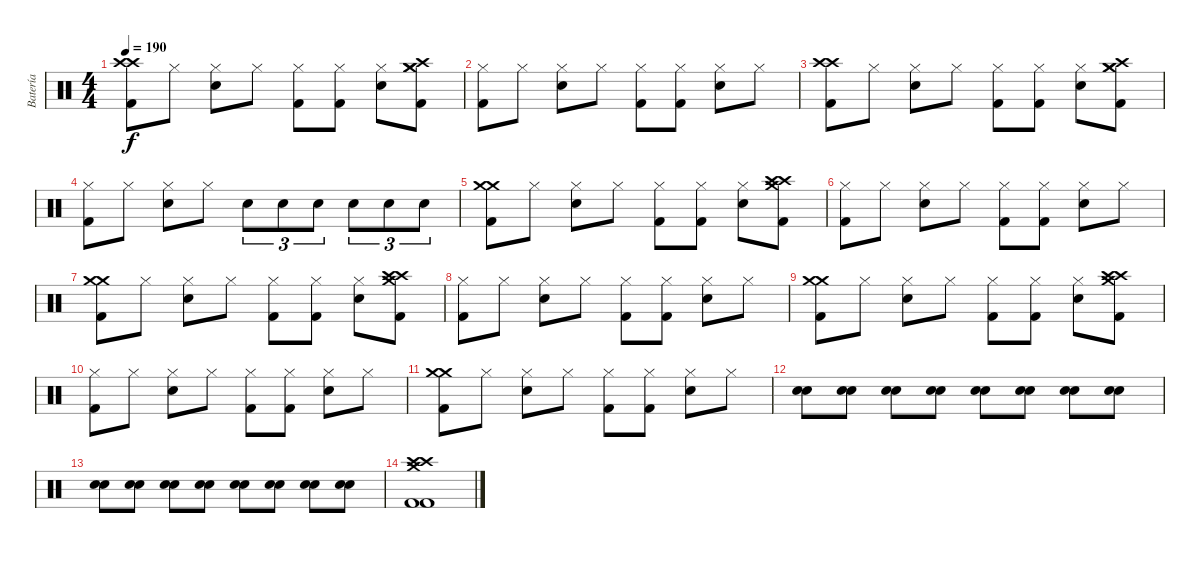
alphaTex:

\track ("Batería" "Batería") {instrument percussion}
\staff {score}
\articulation defaults
\ts (4 4)
\tempo 190
\clef neutral
\ks c
("Crash high (hit)" "Crash high (hit)" "Kick (hit) 2").8{dy f} "Hi-Hat (closed)".8 ("Hi-Hat (closed)" "Snare (hit) 2").8 "Hi-Hat (closed)".8 ("Hi-Hat (closed)" "Kick (hit) 2").8 ("Hi-Hat (closed)" "Kick (hit) 2").8 ("Hi-Hat (closed)" "Snare (hit) 2").8 ("Crash medium (hit)" "Crash medium (hit)" "Crash high (hit)" "Kick (hit) 2").8 |
("Hi-Hat (closed)" "Kick (hit) 2").8 "Hi-Hat (closed)".8 ("Hi-Hat (closed)" "Snare (hit) 2").8 "Hi-Hat (closed)".8 ("Hi-Hat (closed)" "Kick (hit) 2").8 ("Hi-Hat (closed)" "Kick (hit) 2").8 ("Hi-Hat (closed)" "Snare (hit) 2").8 "Hi-Hat (closed)".8 |
("Crash high (hit)" "Crash high (hit)" "Kick (hit) 2").8 "Hi-Hat (closed)".8 ("Hi-Hat (closed)" "Snare (hit) 2").8 "Hi-Hat (closed)".8 ("Hi-Hat (closed)" "Kick (hit) 2").8 ("Hi-Hat (closed)" "Kick (hit) 2").8 ("Hi-Hat (closed)" "Snare (hit) 2").8 ("Crash medium (hit)" "Crash medium (hit)" "Crash high (hit)" "Kick (hit) 2").8 |
("Hi-Hat (closed)" "Kick (hit) 2").8 "Hi-Hat (closed)".8 ("Hi-Hat (closed)" "Snare (hit) 2").8 "Hi-Hat (closed)".8 "Snare (hit) 2".8{tu (3 2)} "Snare (hit) 2".8{tu (3 2)} "Snare (hit) 2".8{tu (3 2)} "Snare (hit) 2".8{tu (3 2)} "Snare (hit) 2".8{tu (3 2)} "Snare (hit) 2".8{tu (3 2)} |
("Crash medium (hit)" "Crash medium (hit)" "Kick (hit) 2").8 "Hi-Hat (closed)".8 ("Hi-Hat (closed)" "Snare (hit) 2").8 "Hi-Hat (closed)".8 ("Hi-Hat (closed)" "Kick (hit) 2").8 ("Hi-Hat (closed)" "Kick (hit) 2").8 ("Hi-Hat (closed)" "Snare (hit) 2").8 ("Crash high (hit)" "Crash high (hit)" "Crash medium (hit)" "Kick (hit) 2").8 |
("Hi-Hat (closed)" "Kick (hit) 2").8 "Hi-Hat (closed)".8 ("Hi-Hat (closed)" "Snare (hit) 2").8 "Hi-Hat (closed)".8 ("Hi-Hat (closed)" "Kick (hit) 2").8 ("Hi-Hat (closed)" "Kick (hit) 2").8 ("Hi-Hat (closed)" "Snare (hit) 2").8 "Hi-Hat (closed)".8 |
("Crash medium (hit)" "Crash medium (hit)" "Kick (hit) 2").8 "Hi-Hat (closed)".8 ("Hi-Hat (closed)" "Snare (hit) 2").8 "Hi-Hat (closed)".8 ("Hi-Hat (closed)" "Kick (hit) 2").8 ("Hi-Hat (closed)" "Kick (hit) 2").8 ("Hi-Hat (closed)" "Snare (hit) 2").8 ("Crash high (hit)" "Crash medium (hit)" "Crash high (hit)" "Kick (hit) 2").8 |
("Hi-Hat (closed)" "Kick (hit) 2").8 "Hi-Hat (closed)".8 ("Hi-Hat (closed)" "Snare (hit) 2").8 "Hi-Hat (closed)".8 ("Hi-Hat (closed)" "Kick (hit) 2").8 ("Hi-Hat (closed)" "Kick (hit) 2").8 ("Hi-Hat (closed)" "Snare (hit) 2").8 "Hi-Hat (closed)".8 |
("Crash medium (hit)" "Crash medium (hit)" "Kick (hit) 2").8 "Hi-Hat (closed)".8 ("Hi-Hat (closed)" "Snare (hit) 2").8 "Hi-Hat (closed)".8 ("Hi-Hat (closed)" "Kick (hit) 2").8 ("Hi-Hat (closed)" "Kick (hit) 2").8 ("Hi-Hat (closed)" "Snare (hit) 2").8 ("Crash high (hit)" "Crash medium (hit)" "Crash high (hit)" "Kick (hit) 2").8 |
("Hi-Hat (closed)" "Kick (hit) 2").8 "Hi-Hat (closed)".8 ("Hi-Hat (closed)" "Snare (hit) 2").8 "Hi-Hat (closed)".8 ("Hi-Hat (closed)" "Kick (hit) 2").8 ("Hi-Hat (closed)" "Kick (hit) 2").8 ("Hi-Hat (closed)" "Snare (hit) 2").8 "Hi-Hat (closed)".8 |
("Crash medium (hit)" "Crash medium (hit)" "Kick (hit) 2").8 "Hi-Hat (closed)".8 ("Hi-Hat (closed)" "Snare (hit) 2").8 "Hi-Hat (closed)".8 ("Hi-Hat (closed)" "Kick (hit) 2").8 ("Hi-Hat (closed)" "Kick (hit) 2").8 ("Hi-Hat (closed)" "Snare (hit) 2").8 "Hi-Hat (closed)".8 |
("Snare (hit) 2" "Snare (hit) 2").8 ("Snare (hit) 2" "Snare (hit) 2").8 ("Snare (hit) 2" "Snare (hit) 2").8 ("Snare (hit) 2" "Snare (hit) 2").8 ("Snare (hit) 2" "Snare (hit) 2").8 ("Snare (hit) 2" "Snare (hit) 2").8 ("Snare (hit) 2" "Snare (hit) 2").8 ("Snare (hit) 2" "Snare (hit) 2").8 |
("Snare (hit) 2" "Snare (hit) 2").8 ("Snare (hit) 2" "Snare (hit) 2").8 ("Snare (hit) 2" "Snare (hit) 2").8 ("Snare (hit) 2" "Snare (hit) 2").8 ("Snare (hit) 2" "Snare (hit) 2").8 ("Snare (hit) 2" "Snare (hit) 2").8 ("Snare (hit) 2" "Snare (hit) 2").8 ("Snare (hit) 2" "Snare (hit) 2").8 |
("Crash high (hit)" "Crash medium (hit)" "Crash high (hit)" "Kick (hit) 2" "Kick (hit) 2").1
